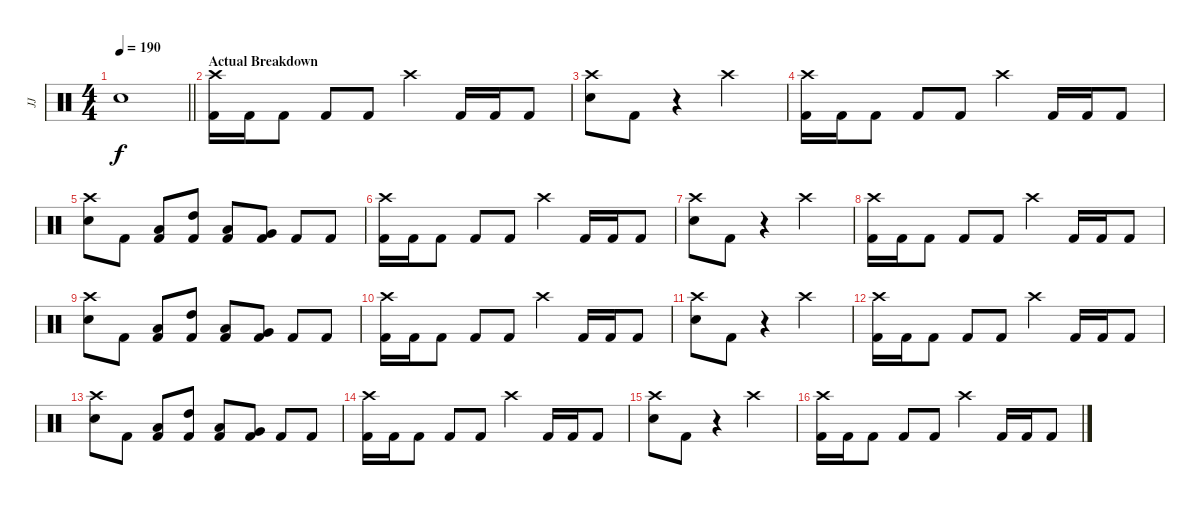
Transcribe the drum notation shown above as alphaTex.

\track ("JJ" "JJ") {instrument percussion}
\staff {score}
\articulation defaults
\ts (4 4)
\tempo 190
\clef neutral
\barLineRight lightlight
\ks c "Electric Snare (hit)".1{dy f}
|
\section ("" "Actual Breakdown")
("Crash high (hit)" "Kick (hit) 2").16 "Kick (hit) 2".16 "Kick (hit) 2".8 "Kick (hit) 2".8 "Kick (hit) 2".8 "Crash high (hit)".4 "Kick (hit) 2".16 "Kick (hit) 2".16 "Kick (hit) 2".8 |
("Crash high (hit)" "Electric Snare (hit)").8 "Kick (hit) 2".8 r.4 "Crash high (hit)".2 |
("Crash high (hit)" "Kick (hit) 2").16 "Kick (hit) 2".16 "Kick (hit) 2".8 "Kick (hit) 2".8 "Kick (hit) 2".8 "Crash high (hit)".4 "Kick (hit) 2".16 "Kick (hit) 2".16 "Kick (hit) 2".8 |
("Crash high (hit)" "Electric Snare (hit)").8 "Kick (hit) 2".8 ("Low Floor Tom (hit)" "Kick (hit) 2").8 ("High Tom (hit)" "Kick (hit) 2").8 ("Low Floor Tom (hit)" "Kick (hit) 2").8 ("Very Low Tom (hit)" "Kick (hit) 2").8 "Kick (hit) 2".8 "Kick (hit) 2".8 |
("Crash high (hit)" "Kick (hit) 2").16 "Kick (hit) 2".16 "Kick (hit) 2".8 "Kick (hit) 2".8 "Kick (hit) 2".8 "Crash high (hit)".4 "Kick (hit) 2".16 "Kick (hit) 2".16 "Kick (hit) 2".8 |
("Crash high (hit)" "Electric Snare (hit)").8 "Kick (hit) 2".8 r.4 "Crash high (hit)".2 |
("Crash high (hit)" "Kick (hit) 2").16 "Kick (hit) 2".16 "Kick (hit) 2".8 "Kick (hit) 2".8 "Kick (hit) 2".8 "Crash high (hit)".4 "Kick (hit) 2".16 "Kick (hit) 2".16 "Kick (hit) 2".8 |
("Crash high (hit)" "Electric Snare (hit)").8 "Kick (hit) 2".8 ("Low Floor Tom (hit)" "Kick (hit) 2").8 ("High Tom (hit)" "Kick (hit) 2").8 ("Low Floor Tom (hit)" "Kick (hit) 2").8 ("Very Low Tom (hit)" "Kick (hit) 2").8 "Kick (hit) 2".8 "Kick (hit) 2".8 |
("Crash high (hit)" "Kick (hit) 2").16 "Kick (hit) 2".16 "Kick (hit) 2".8 "Kick (hit) 2".8 "Kick (hit) 2".8 "Crash high (hit)".4 "Kick (hit) 2".16 "Kick (hit) 2".16 "Kick (hit) 2".8 |
("Crash high (hit)" "Electric Snare (hit)").8 "Kick (hit) 2".8 r.4 "Crash high (hit)".2 |
("Crash high (hit)" "Kick (hit) 2").16 "Kick (hit) 2".16 "Kick (hit) 2".8 "Kick (hit) 2".8 "Kick (hit) 2".8 "Crash high (hit)".4 "Kick (hit) 2".16 "Kick (hit) 2".16 "Kick (hit) 2".8 |
("Crash high (hit)" "Electric Snare (hit)").8 "Kick (hit) 2".8 ("Low Floor Tom (hit)" "Kick (hit) 2").8 ("High Tom (hit)" "Kick (hit) 2").8 ("Low Floor Tom (hit)" "Kick (hit) 2").8 ("Very Low Tom (hit)" "Kick (hit) 2").8 "Kick (hit) 2".8 "Kick (hit) 2".8 |
("Crash high (hit)" "Kick (hit) 2").16 "Kick (hit) 2".16 "Kick (hit) 2".8 "Kick (hit) 2".8 "Kick (hit) 2".8 "Crash high (hit)".4 "Kick (hit) 2".16 "Kick (hit) 2".16 "Kick (hit) 2".8 |
("Crash high (hit)" "Electric Snare (hit)").8 "Kick (hit) 2".8 r.4 "Crash high (hit)".2 |
("Crash high (hit)" "Kick (hit) 2").16 "Kick (hit) 2".16 "Kick (hit) 2".8 "Kick (hit) 2".8 "Kick (hit) 2".8 "Crash high (hit)".4 "Kick (hit) 2".16 "Kick (hit) 2".16 "Kick (hit) 2".8
